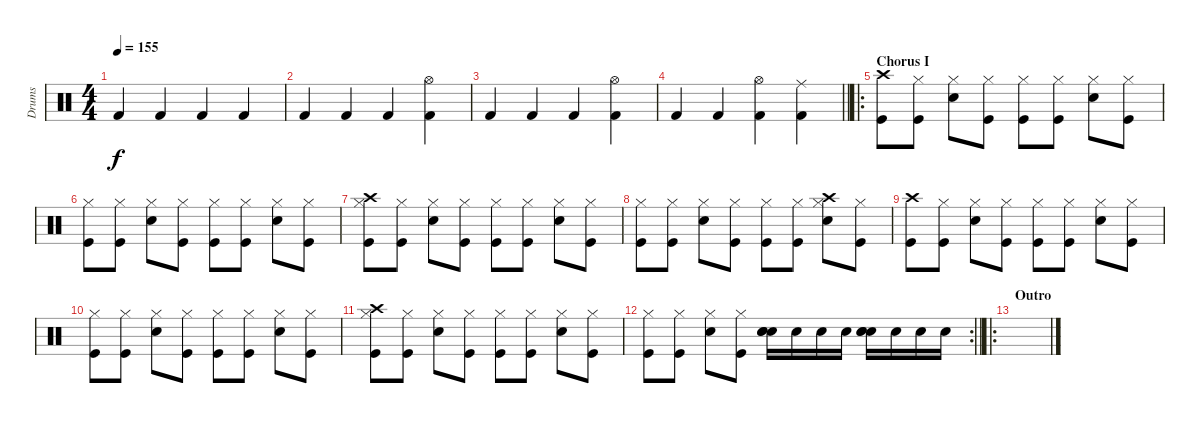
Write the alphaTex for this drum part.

\track ("Drums" "Drums") {instrument percussion}
\staff {score}
\articulation defaults
\ts (4 4)
\tempo 155
\clef neutral
\ks c "Kick (hit) 2".4{dy f} "Kick (hit) 2".4 "Kick (hit) 2".4 "Kick (hit) 2".4
|
"Kick (hit) 2".4 "Kick (hit) 2".4 "Kick (hit) 2".4 ("Hi-Hat (open)" "Kick (hit) 2").4 |
"Kick (hit) 2".4 "Kick (hit) 2".4 "Kick (hit) 2".4 ("Hi-Hat (open)" "Kick (hit) 2").4 |
\barLineRight lightlight "Kick (hit) 2".4 "Kick (hit) 2".4
("Hi-Hat (open)" "Kick (hit) 2").4 ("Ride (middle)" "Kick (hit) 2").4 |
\ro
\section ("" "Chorus I")
("Crash high (hit)" "Kick (hit)").8 ("Kick (hit)" "Hi-Hat (closed)").8 ("Electric Snare (hit)" "Hi-Hat (closed)").8 ("Kick (hit)" "Hi-Hat (closed)").8 ("Kick (hit)" "Hi-Hat (closed)").8 ("Kick (hit)" "Hi-Hat (closed)").8 ("Electric Snare (hit)" "Hi-Hat (closed)").8 ("Kick (hit)" "Hi-Hat (closed)").8 |
("Kick (hit)" "Hi-Hat (closed)").8 ("Kick (hit)" "Hi-Hat (closed)").8 ("Electric Snare (hit)" "Hi-Hat (closed)").8 ("Kick (hit)" "Hi-Hat (closed)").8 ("Kick (hit)" "Hi-Hat (closed)").8 ("Kick (hit)" "Hi-Hat (closed)").8 ("Electric Snare (hit)" "Hi-Hat (closed)").8 ("Kick (hit)" "Hi-Hat (closed)").8 |
("Crash high (hit)" "Kick (hit)" "Hi-Hat (closed)").8 ("Kick (hit)" "Hi-Hat (closed)").8 ("Electric Snare (hit)" "Hi-Hat (closed)").8 ("Kick (hit)" "Hi-Hat (closed)").8 ("Kick (hit)" "Hi-Hat (closed)").8 ("Kick (hit)" "Hi-Hat (closed)").8 ("Electric Snare (hit)" "Hi-Hat (closed)").8 ("Kick (hit)" "Hi-Hat (closed)").8 |
("Kick (hit)" "Hi-Hat (closed)").8 ("Kick (hit)" "Hi-Hat (closed)").8 ("Electric Snare (hit)" "Hi-Hat (closed)").8 ("Kick (hit)" "Hi-Hat (closed)").8 ("Kick (hit)" "Hi-Hat (closed)").8 ("Kick (hit)" "Hi-Hat (closed)").8 ("Crash high (hit)" "Electric Snare (hit)" "Hi-Hat (closed)").8 ("Kick (hit)" "Hi-Hat (closed)").8 |
("Crash high (hit)" "Kick (hit)").8 ("Kick (hit)" "Hi-Hat (closed)").8 ("Electric Snare (hit)" "Hi-Hat (closed)").8 ("Kick (hit)" "Hi-Hat (closed)").8 ("Kick (hit)" "Hi-Hat (closed)").8 ("Kick (hit)" "Hi-Hat (closed)").8 ("Electric Snare (hit)" "Hi-Hat (closed)").8 ("Kick (hit)" "Hi-Hat (closed)").8 |
("Kick (hit)" "Hi-Hat (closed)").8 ("Kick (hit)" "Hi-Hat (closed)").8 ("Electric Snare (hit)" "Hi-Hat (closed)").8 ("Kick (hit)" "Hi-Hat (closed)").8 ("Kick (hit)" "Hi-Hat (closed)").8 ("Kick (hit)" "Hi-Hat (closed)").8 ("Electric Snare (hit)" "Hi-Hat (closed)").8 ("Kick (hit)" "Hi-Hat (closed)").8 |
("Crash high (hit)" "Kick (hit)" "Hi-Hat (closed)").8 ("Kick (hit)" "Hi-Hat (closed)").8 ("Electric Snare (hit)" "Hi-Hat (closed)").8 ("Kick (hit)" "Hi-Hat (closed)").8 ("Kick (hit)" "Hi-Hat (closed)").8 ("Kick (hit)" "Hi-Hat (closed)").8 ("Electric Snare (hit)" "Hi-Hat (closed)").8 ("Kick (hit)" "Hi-Hat (closed)").8 |
\rc 2
\barLineRight lightlight
("Kick (hit)" "Hi-Hat (closed)").8 ("Kick (hit)" "Hi-Hat (closed)").8 ("Electric Snare (hit)" "Hi-Hat (closed)").8 ("Kick (hit)" "Hi-Hat (closed)").8 ("Snare (hit) 2" "Electric Snare (hit)" "Electric Snare (hit)").16 "Electric Snare (hit)".16 "Electric Snare (hit)".16 "Electric Snare (hit)".16 ("Snare (hit) 2" "Electric Snare (hit)" "Electric Snare (hit)").16 "Electric Snare (hit)".16 "Electric Snare (hit)".16 "Electric Snare (hit)".16 |
\ro
\section ("" "Outro")
